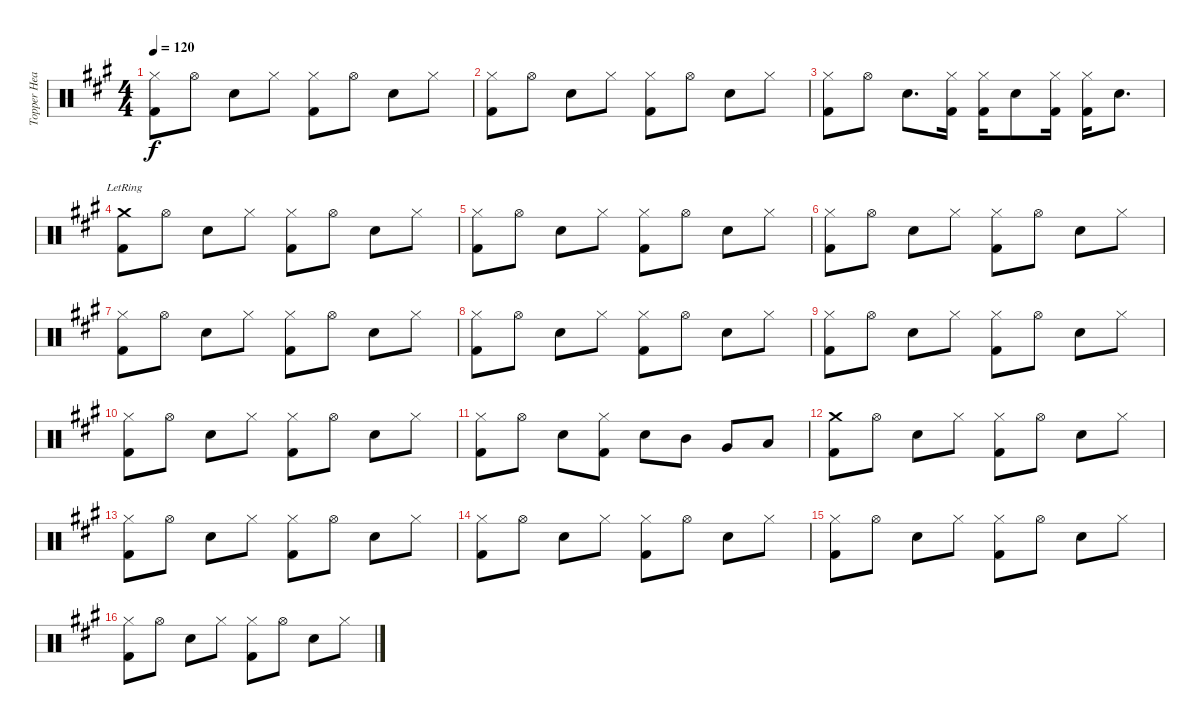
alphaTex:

\track ("Topper Headon - Drums" "Topper Hea") {instrument percussion}
\staff {score}
\articulation defaults
\ts (4 4)
\tempo 120
\clef neutral
\ks a
("Hi-Hat (closed)" "Kick (hit) 2").8{dy f} "Hi-Hat (open)".8 "Electric Snare (hit)".8 "Hi-Hat (closed)".8 ("Hi-Hat (closed)" "Kick (hit) 2").8 "Hi-Hat (open)".8 "Electric Snare (hit)".8 "Hi-Hat (closed)".8 |
("Hi-Hat (closed)" "Kick (hit) 2").8 "Hi-Hat (open)".8 "Electric Snare (hit)".8 "Hi-Hat (closed)".8 ("Hi-Hat (closed)" "Kick (hit) 2").8 "Hi-Hat (open)".8 "Electric Snare (hit)".8 "Hi-Hat (closed)".8 |
("Hi-Hat (closed)" "Kick (hit) 2").8 "Hi-Hat (open)".8 "Electric Snare (hit)".8{d} ("Hi-Hat (closed)" "Kick (hit) 2").16 ("Hi-Hat (closed)" "Kick (hit) 2").16 "Electric Snare (hit)".8 ("Hi-Hat (closed)" "Kick (hit) 2").16 ("Hi-Hat (closed)" "Kick (hit) 2").16 "Electric Snare (hit)".8{d} |
("Crash medium (hit)"{lr} "Kick (hit) 2").8 "Hi-Hat (open)".8 "Electric Snare (hit)".8 "Hi-Hat (closed)".8 ("Hi-Hat (closed)" "Kick (hit) 2").8 "Hi-Hat (open)".8 "Electric Snare (hit)".8 "Hi-Hat (closed)".8 |
("Hi-Hat (closed)" "Kick (hit) 2").8 "Hi-Hat (open)".8 "Electric Snare (hit)".8 "Hi-Hat (closed)".8 ("Hi-Hat (closed)" "Kick (hit) 2").8 "Hi-Hat (open)".8 "Electric Snare (hit)".8 "Hi-Hat (closed)".8 |
("Hi-Hat (closed)" "Kick (hit) 2").8 "Hi-Hat (open)".8 "Electric Snare (hit)".8 "Hi-Hat (closed)".8 ("Hi-Hat (closed)" "Kick (hit) 2").8 "Hi-Hat (open)".8 "Electric Snare (hit)".8 "Hi-Hat (closed)".8 |
("Hi-Hat (closed)" "Kick (hit) 2").8 "Hi-Hat (open)".8 "Electric Snare (hit)".8 "Hi-Hat (closed)".8 ("Hi-Hat (closed)" "Kick (hit) 2").8 "Hi-Hat (open)".8 "Electric Snare (hit)".8 "Hi-Hat (closed)".8 |
("Hi-Hat (closed)" "Kick (hit) 2").8 "Hi-Hat (open)".8 "Electric Snare (hit)".8 "Hi-Hat (closed)".8 ("Hi-Hat (closed)" "Kick (hit) 2").8 "Hi-Hat (open)".8 "Electric Snare (hit)".8 "Hi-Hat (closed)".8 |
("Hi-Hat (closed)" "Kick (hit) 2").8 "Hi-Hat (open)".8 "Electric Snare (hit)".8 "Hi-Hat (closed)".8 ("Hi-Hat (closed)" "Kick (hit) 2").8 "Hi-Hat (open)".8 "Electric Snare (hit)".8 "Hi-Hat (closed)".8 |
("Hi-Hat (closed)" "Kick (hit) 2").8 "Hi-Hat (open)".8 "Electric Snare (hit)".8 "Hi-Hat (closed)".8 ("Hi-Hat (closed)" "Kick (hit) 2").8 "Hi-Hat (open)".8 "Electric Snare (hit)".8 "Hi-Hat (closed)".8 |
("Hi-Hat (closed)" "Kick (hit) 2").8 "Hi-Hat (open)".8 "Electric Snare (hit)".8 ("Hi-Hat (closed)" "Kick (hit) 2").8 "Electric Snare (hit)".8 "Mid Tom (hit)".8 "Very Low Tom (hit)".8 "Low Floor Tom (hit)".8 |
("Crash medium (hit)" "Kick (hit) 2").8 "Hi-Hat (open)".8 "Electric Snare (hit)".8 "Hi-Hat (closed)".8 ("Hi-Hat (closed)" "Kick (hit) 2").8 "Hi-Hat (open)".8 "Electric Snare (hit)".8 "Hi-Hat (closed)".8 |
("Hi-Hat (closed)" "Kick (hit) 2").8 "Hi-Hat (open)".8 "Electric Snare (hit)".8 "Hi-Hat (closed)".8 ("Hi-Hat (closed)" "Kick (hit) 2").8 "Hi-Hat (open)".8 "Electric Snare (hit)".8 "Hi-Hat (closed)".8 |
("Hi-Hat (closed)" "Kick (hit) 2").8 "Hi-Hat (open)".8 "Electric Snare (hit)".8 "Hi-Hat (closed)".8 ("Hi-Hat (closed)" "Kick (hit) 2").8 "Hi-Hat (open)".8 "Electric Snare (hit)".8 "Hi-Hat (closed)".8 |
("Hi-Hat (closed)" "Kick (hit) 2").8 "Hi-Hat (open)".8 "Electric Snare (hit)".8 "Hi-Hat (closed)".8 ("Hi-Hat (closed)" "Kick (hit) 2").8 "Hi-Hat (open)".8 "Electric Snare (hit)".8 "Hi-Hat (closed)".8 |
("Hi-Hat (closed)" "Kick (hit) 2").8 "Hi-Hat (open)".8 "Electric Snare (hit)".8 "Hi-Hat (closed)".8 ("Hi-Hat (closed)" "Kick (hit) 2").8 "Hi-Hat (open)".8 "Electric Snare (hit)".8 "Hi-Hat (closed)".8
